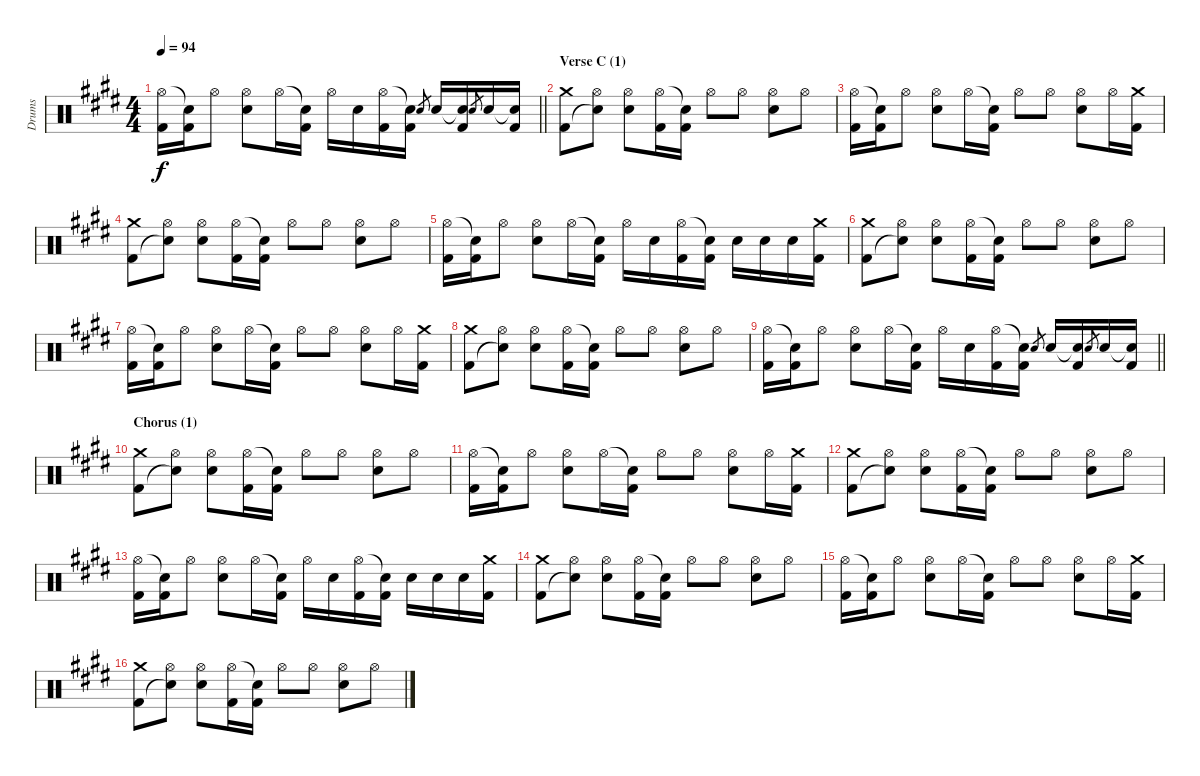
\track ("Drums" "Drums") {instrument percussion}
\staff {score}
\articulation defaults
\ts (4 4)
\tempo 94
\clef neutral
\barLineRight lightlight
\ks c#minor
("Hi-Hat (open)" "Kick (hit) 2").16{dy f} ("Snare (hit)"{t} "Kick (hit) 2").16 "Hi-Hat (open)".8 ("Hi-Hat (open)" "Electric Snare (hit)").8 "Hi-Hat (open)".16 ("Snare (hit)"{t} "Kick (hit) 2").16 "Hi-Hat (open)".16 "Electric Snare (hit)".16 ("Hi-Hat (open)" "Kick (hit) 2").16 ("Snare (hit)"{t} "Kick (hit) 2").16 "Electric Snare (hit)".8{gr} "Electric Snare (hit)".16 ("Snare (hit)"{t} "Kick (hit) 2").16 "Electric Snare (hit)".8{gr} "Electric Snare (hit)".16 ("Snare (hit)"{t} "Kick (hit) 2").16 |
\section ("" "Verse C (1)")
("Crash medium (hit)" "Kick (hit) 2").8 ("Hi-Hat (open)" "Snare (hit)"{t}).8 ("Hi-Hat (open)" "Electric Snare (hit)").8 ("Hi-Hat (open)" "Kick (hit) 2").16 ("Snare (hit)"{t} "Kick (hit) 2").16 "Hi-Hat (open)".8 "Hi-Hat (open)".8 ("Hi-Hat (open)" "Electric Snare (hit)").8 "Hi-Hat (open)".8 |
("Hi-Hat (open)" "Kick (hit) 2").16 ("Snare (hit)"{t} "Kick (hit) 2").16 "Hi-Hat (open)".8 ("Hi-Hat (open)" "Electric Snare (hit)").8 "Hi-Hat (open)".16 ("Snare (hit)"{t} "Kick (hit) 2").16 "Hi-Hat (open)".8 "Hi-Hat (open)".8 ("Hi-Hat (open)" "Electric Snare (hit)").8 "Hi-Hat (open)".16 ("Crash medium (hit)" "Kick (hit) 2").16 |
("Crash medium (hit)" "Kick (hit) 2").8 ("Hi-Hat (open)" "Snare (hit)"{t}).8 ("Hi-Hat (open)" "Electric Snare (hit)").8 ("Hi-Hat (open)" "Kick (hit) 2").16 ("Snare (hit)"{t} "Kick (hit) 2").16 "Hi-Hat (open)".8 "Hi-Hat (open)".8 ("Hi-Hat (open)" "Electric Snare (hit)").8 "Hi-Hat (open)".8 |
("Hi-Hat (open)" "Kick (hit) 2").16 ("Snare (hit)"{t} "Kick (hit) 2").16 "Hi-Hat (open)".8 ("Hi-Hat (open)" "Electric Snare (hit)").8 "Hi-Hat (open)".16 ("Snare (hit)"{t} "Kick (hit) 2").16 "Hi-Hat (open)".16 "Electric Snare (hit)".16 ("Hi-Hat (open)" "Kick (hit) 2").16 ("Snare (hit)"{t} "Kick (hit) 2").16 "Electric Snare (hit)".16 "Electric Snare (hit)".16 "Electric Snare (hit)".16 ("Crash medium (hit)" "Kick (hit) 2").16 |
("Crash medium (hit)" "Kick (hit) 2").8 ("Hi-Hat (open)" "Snare (hit)"{t}).8 ("Hi-Hat (open)" "Electric Snare (hit)").8 ("Hi-Hat (open)" "Kick (hit) 2").16 ("Snare (hit)"{t} "Kick (hit) 2").16 "Hi-Hat (open)".8 "Hi-Hat (open)".8 ("Hi-Hat (open)" "Electric Snare (hit)").8 "Hi-Hat (open)".8 |
("Hi-Hat (open)" "Kick (hit) 2").16 ("Snare (hit)"{t} "Kick (hit) 2").16 "Hi-Hat (open)".8 ("Hi-Hat (open)" "Electric Snare (hit)").8 "Hi-Hat (open)".16 ("Snare (hit)"{t} "Kick (hit) 2").16 "Hi-Hat (open)".8 "Hi-Hat (open)".8 ("Hi-Hat (open)" "Electric Snare (hit)").8 "Hi-Hat (open)".16 ("Crash medium (hit)" "Kick (hit) 2").16 |
("Crash medium (hit)" "Kick (hit) 2").8 ("Hi-Hat (open)" "Snare (hit)"{t}).8 ("Hi-Hat (open)" "Electric Snare (hit)").8 ("Hi-Hat (open)" "Kick (hit) 2").16 ("Snare (hit)"{t} "Kick (hit) 2").16 "Hi-Hat (open)".8 "Hi-Hat (open)".8 ("Hi-Hat (open)" "Electric Snare (hit)").8 "Hi-Hat (open)".8 |
\barLineRight lightlight
("Hi-Hat (open)" "Kick (hit) 2").16 ("Snare (hit)"{t} "Kick (hit) 2").16 "Hi-Hat (open)".8 ("Hi-Hat (open)" "Electric Snare (hit)").8 "Hi-Hat (open)".16 ("Snare (hit)"{t} "Kick (hit) 2").16 "Hi-Hat (open)".16 "Electric Snare (hit)".16 ("Hi-Hat (open)" "Kick (hit) 2").16 ("Snare (hit)"{t} "Kick (hit) 2").16 "Electric Snare (hit)".8{gr} "Electric Snare (hit)".16 ("Snare (hit)"{t} "Kick (hit) 2").16 "Electric Snare (hit)".8{gr} "Electric Snare (hit)".16 ("Snare (hit)"{t} "Kick (hit) 2").16 |
\section ("" "Chorus (1)")
("Crash medium (hit)" "Kick (hit) 2").8 ("Hi-Hat (open)" "Snare (hit)"{t}).8 ("Hi-Hat (open)" "Electric Snare (hit)").8 ("Hi-Hat (open)" "Kick (hit) 2").16 ("Snare (hit)"{t} "Kick (hit) 2").16 "Hi-Hat (open)".8 "Hi-Hat (open)".8 ("Hi-Hat (open)" "Electric Snare (hit)").8 "Hi-Hat (open)".8 |
("Hi-Hat (open)" "Kick (hit) 2").16 ("Snare (hit)"{t} "Kick (hit) 2").16 "Hi-Hat (open)".8 ("Hi-Hat (open)" "Electric Snare (hit)").8 "Hi-Hat (open)".16 ("Snare (hit)"{t} "Kick (hit) 2").16 "Hi-Hat (open)".8 "Hi-Hat (open)".8 ("Hi-Hat (open)" "Electric Snare (hit)").8 "Hi-Hat (open)".16 ("Crash medium (hit)" "Kick (hit) 2").16 |
("Crash medium (hit)" "Kick (hit) 2").8 ("Hi-Hat (open)" "Snare (hit)"{t}).8 ("Hi-Hat (open)" "Electric Snare (hit)").8 ("Hi-Hat (open)" "Kick (hit) 2").16 ("Snare (hit)"{t} "Kick (hit) 2").16 "Hi-Hat (open)".8 "Hi-Hat (open)".8 ("Hi-Hat (open)" "Electric Snare (hit)").8 "Hi-Hat (open)".8 |
("Hi-Hat (open)" "Kick (hit) 2").16 ("Snare (hit)"{t} "Kick (hit) 2").16 "Hi-Hat (open)".8 ("Hi-Hat (open)" "Electric Snare (hit)").8 "Hi-Hat (open)".16 ("Snare (hit)"{t} "Kick (hit) 2").16 "Hi-Hat (open)".16 "Electric Snare (hit)".16 ("Hi-Hat (open)" "Kick (hit) 2").16 ("Snare (hit)"{t} "Kick (hit) 2").16 "Electric Snare (hit)".16 "Electric Snare (hit)".16 "Electric Snare (hit)".16 ("Crash medium (hit)" "Kick (hit) 2").16 |
("Crash medium (hit)" "Kick (hit) 2").8 ("Hi-Hat (open)" "Snare (hit)"{t}).8 ("Hi-Hat (open)" "Electric Snare (hit)").8 ("Hi-Hat (open)" "Kick (hit) 2").16 ("Snare (hit)"{t} "Kick (hit) 2").16 "Hi-Hat (open)".8 "Hi-Hat (open)".8 ("Hi-Hat (open)" "Electric Snare (hit)").8 "Hi-Hat (open)".8 |
("Hi-Hat (open)" "Kick (hit) 2").16 ("Snare (hit)"{t} "Kick (hit) 2").16 "Hi-Hat (open)".8 ("Hi-Hat (open)" "Electric Snare (hit)").8 "Hi-Hat (open)".16 ("Snare (hit)"{t} "Kick (hit) 2").16 "Hi-Hat (open)".8 "Hi-Hat (open)".8 ("Hi-Hat (open)" "Electric Snare (hit)").8 "Hi-Hat (open)".16 ("Crash medium (hit)" "Kick (hit) 2").16 |
("Crash medium (hit)" "Kick (hit) 2").8 ("Hi-Hat (open)" "Snare (hit)"{t}).8 ("Hi-Hat (open)" "Electric Snare (hit)").8 ("Hi-Hat (open)" "Kick (hit) 2").16 ("Snare (hit)"{t} "Kick (hit) 2").16 "Hi-Hat (open)".8 "Hi-Hat (open)".8 ("Hi-Hat (open)" "Electric Snare (hit)").8 "Hi-Hat (open)".8
